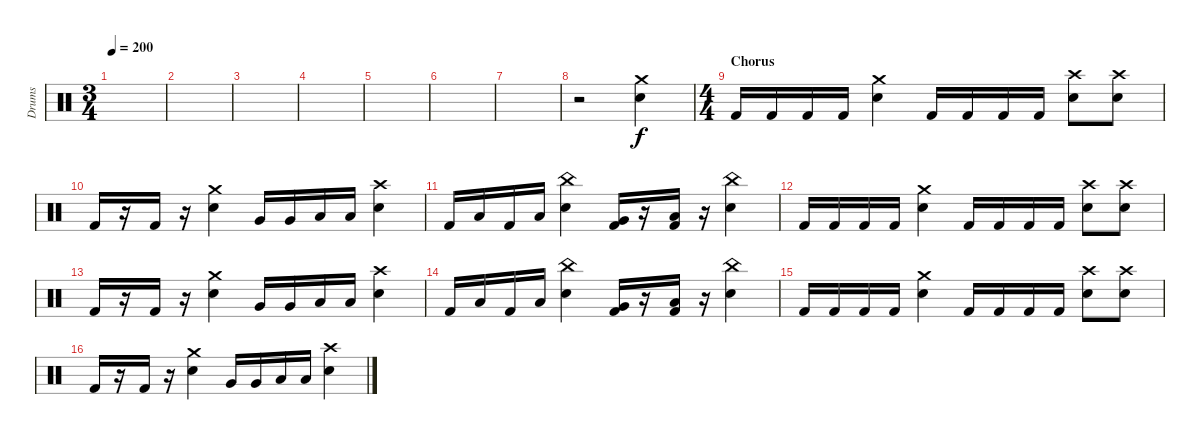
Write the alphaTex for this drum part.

\track ("Drums" "Drums") {instrument percussion}
\staff {score}
\articulation defaults
\ts (3 4)
\tempo 200
\clef neutral
\ks c
|
|
|
|
|
|
|
r.2{volume 13} ("Electric Snare (hit)" "Crash medium (hit)").4 |
\ts (4 4)
\section ("" "Chorus")
"Kick (hit) 2".16 "Kick (hit) 2".16 "Kick (hit) 2".16 "Kick (hit) 2".16 ("Crash medium (hit)" "Electric Snare (hit)").4 "Kick (hit) 2".16 "Kick (hit) 2".16 "Kick (hit) 2".16 "Kick (hit) 2".16 ("Crash high (hit)" "Electric Snare (hit)").8 ("Crash high (hit)" "Electric Snare (hit)").8 |
"Kick (hit) 2".16 r.16 "Kick (hit) 2".16 r.16 ("Crash medium (hit)" "Electric Snare (hit)").4 "Very Low Tom (hit)".16 "Very Low Tom (hit)".16 "Low Floor Tom (hit)".16 "Low Floor Tom (hit)".16 ("Crash high (hit)" "Electric Snare (hit)").4 |
"Kick (hit) 2".16 "Low Floor Tom (hit)".16 "Kick (hit) 2".16 "Low Floor Tom (hit)".16 ("China (hit)" "Electric Snare (hit)").4 ("Very Low Tom (hit)" "Kick (hit) 2").16 r.16 ("Low Floor Tom (hit)" "Kick (hit) 2").16 r.16 ("China (hit)" "Electric Snare (hit)").4 |
"Kick (hit) 2".16 "Kick (hit) 2".16 "Kick (hit) 2".16 "Kick (hit) 2".16 ("Crash medium (hit)" "Electric Snare (hit)").4 "Kick (hit) 2".16 "Kick (hit) 2".16 "Kick (hit) 2".16 "Kick (hit) 2".16 ("Crash high (hit)" "Electric Snare (hit)").8 ("Crash high (hit)" "Electric Snare (hit)").8 |
"Kick (hit) 2".16 r.16 "Kick (hit) 2".16 r.16 ("Crash medium (hit)" "Electric Snare (hit)").4 "Very Low Tom (hit)".16 "Very Low Tom (hit)".16 "Low Floor Tom (hit)".16 "Low Floor Tom (hit)".16 ("Crash high (hit)" "Electric Snare (hit)").4 |
"Kick (hit) 2".16 "Low Floor Tom (hit)".16 "Kick (hit) 2".16 "Low Floor Tom (hit)".16 ("China (hit)" "Electric Snare (hit)").4 ("Very Low Tom (hit)" "Kick (hit) 2").16 r.16 ("Low Floor Tom (hit)" "Kick (hit) 2").16 r.16 ("China (hit)" "Electric Snare (hit)").4 |
"Kick (hit) 2".16 "Kick (hit) 2".16 "Kick (hit) 2".16 "Kick (hit) 2".16 ("Crash medium (hit)" "Electric Snare (hit)").4 "Kick (hit) 2".16 "Kick (hit) 2".16 "Kick (hit) 2".16 "Kick (hit) 2".16 ("Crash high (hit)" "Electric Snare (hit)").8 ("Crash high (hit)" "Electric Snare (hit)").8 |
"Kick (hit) 2".16 r.16 "Kick (hit) 2".16 r.16 ("Crash medium (hit)" "Electric Snare (hit)").4 "Very Low Tom (hit)".16 "Very Low Tom (hit)".16 "Low Floor Tom (hit)".16 "Low Floor Tom (hit)".16 ("Crash high (hit)" "Electric Snare (hit)").4
